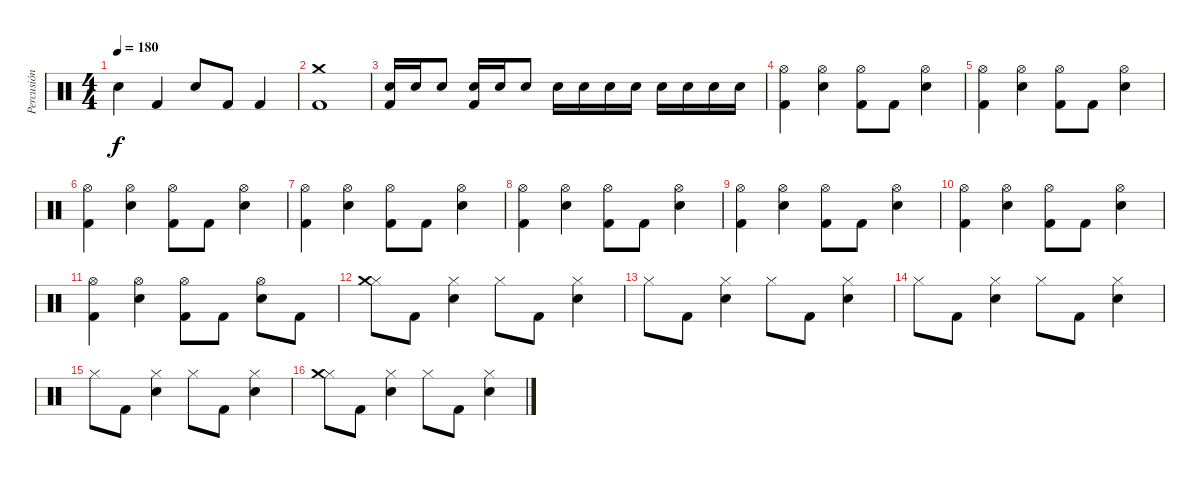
\track ("Percusión" "Percusión") {instrument percussion}
\staff {score}
\articulation defaults
\ts (4 4)
\tempo 180
\clef neutral
\ks c "Electric Snare (hit)".4{dy f} "Kick (hit) 2".4 "Electric Snare (hit)".8 "Kick (hit) 2".8 "Kick (hit) 2".4
|
("Kick (hit) 2" "Crash medium (hit)").1 |
("Electric Snare (hit)" "Kick (hit) 2").16 "Electric Snare (hit)".16 "Electric Snare (hit)".8 ("Electric Snare (hit)" "Kick (hit) 2").16 "Electric Snare (hit)".16 "Electric Snare (hit)".8 "Electric Snare (hit)".16 "Electric Snare (hit)".16 "Electric Snare (hit)".16 "Electric Snare (hit)".16 "Electric Snare (hit)".16 "Electric Snare (hit)".16 "Electric Snare (hit)".16 "Electric Snare (hit)".16 |
("Kick (hit) 2" "Hi-Hat (open)").4 ("Electric Snare (hit)" "Hi-Hat (open)").4 ("Kick (hit) 2" "Hi-Hat (open)").8 "Kick (hit) 2".8 ("Electric Snare (hit)" "Hi-Hat (open)").4 |
("Kick (hit) 2" "Hi-Hat (open)").4 ("Electric Snare (hit)" "Hi-Hat (open)").4 ("Kick (hit) 2" "Hi-Hat (open)").8 "Kick (hit) 2".8 ("Electric Snare (hit)" "Hi-Hat (open)").4 |
("Kick (hit) 2" "Hi-Hat (open)").4 ("Electric Snare (hit)" "Hi-Hat (open)").4 ("Kick (hit) 2" "Hi-Hat (open)").8 "Kick (hit) 2".8 ("Electric Snare (hit)" "Hi-Hat (open)").4 |
("Kick (hit) 2" "Hi-Hat (open)").4 ("Electric Snare (hit)" "Hi-Hat (open)").4 ("Kick (hit) 2" "Hi-Hat (open)").8 "Kick (hit) 2".8 ("Electric Snare (hit)" "Hi-Hat (open)").4 |
("Kick (hit) 2" "Hi-Hat (open)").4 ("Electric Snare (hit)" "Hi-Hat (open)").4 ("Kick (hit) 2" "Hi-Hat (open)").8 "Kick (hit) 2".8 ("Electric Snare (hit)" "Hi-Hat (open)").4 |
("Kick (hit) 2" "Hi-Hat (open)").4 ("Electric Snare (hit)" "Hi-Hat (open)").4 ("Kick (hit) 2" "Hi-Hat (open)").8 "Kick (hit) 2".8 ("Electric Snare (hit)" "Hi-Hat (open)").4 |
("Kick (hit) 2" "Hi-Hat (open)").4 ("Electric Snare (hit)" "Hi-Hat (open)").4 ("Kick (hit) 2" "Hi-Hat (open)").8 "Kick (hit) 2".8 ("Electric Snare (hit)" "Hi-Hat (open)").4 |
("Kick (hit) 2" "Hi-Hat (open)").4 ("Electric Snare (hit)" "Hi-Hat (open)").4 ("Kick (hit) 2" "Hi-Hat (open)").8 "Kick (hit) 2".8 ("Electric Snare (hit)" "Hi-Hat (open)").8 "Kick (hit) 2".8 |
("Hi-Hat (closed)" "Crash medium (hit)").8 "Kick (hit) 2".8 ("Electric Snare (hit)" "Hi-Hat (closed)").4 "Hi-Hat (closed)".8 "Kick (hit) 2".8 ("Electric Snare (hit)" "Hi-Hat (closed)").4 |
"Hi-Hat (closed)".8 "Kick (hit) 2".8 ("Electric Snare (hit)" "Hi-Hat (closed)").4 "Hi-Hat (closed)".8 "Kick (hit) 2".8 ("Electric Snare (hit)" "Hi-Hat (closed)").4 |
"Hi-Hat (closed)".8 "Kick (hit) 2".8 ("Electric Snare (hit)" "Hi-Hat (closed)").4 "Hi-Hat (closed)".8 "Kick (hit) 2".8 ("Electric Snare (hit)" "Hi-Hat (closed)").4 |
"Hi-Hat (closed)".8 "Kick (hit) 2".8 ("Electric Snare (hit)" "Hi-Hat (closed)").4 "Hi-Hat (closed)".8 "Kick (hit) 2".8 ("Electric Snare (hit)" "Hi-Hat (closed)").4 |
("Hi-Hat (closed)" "Crash medium (hit)").8 "Kick (hit) 2".8 ("Electric Snare (hit)" "Hi-Hat (closed)").4 "Hi-Hat (closed)".8 "Kick (hit) 2".8 ("Electric Snare (hit)" "Hi-Hat (closed)").4
